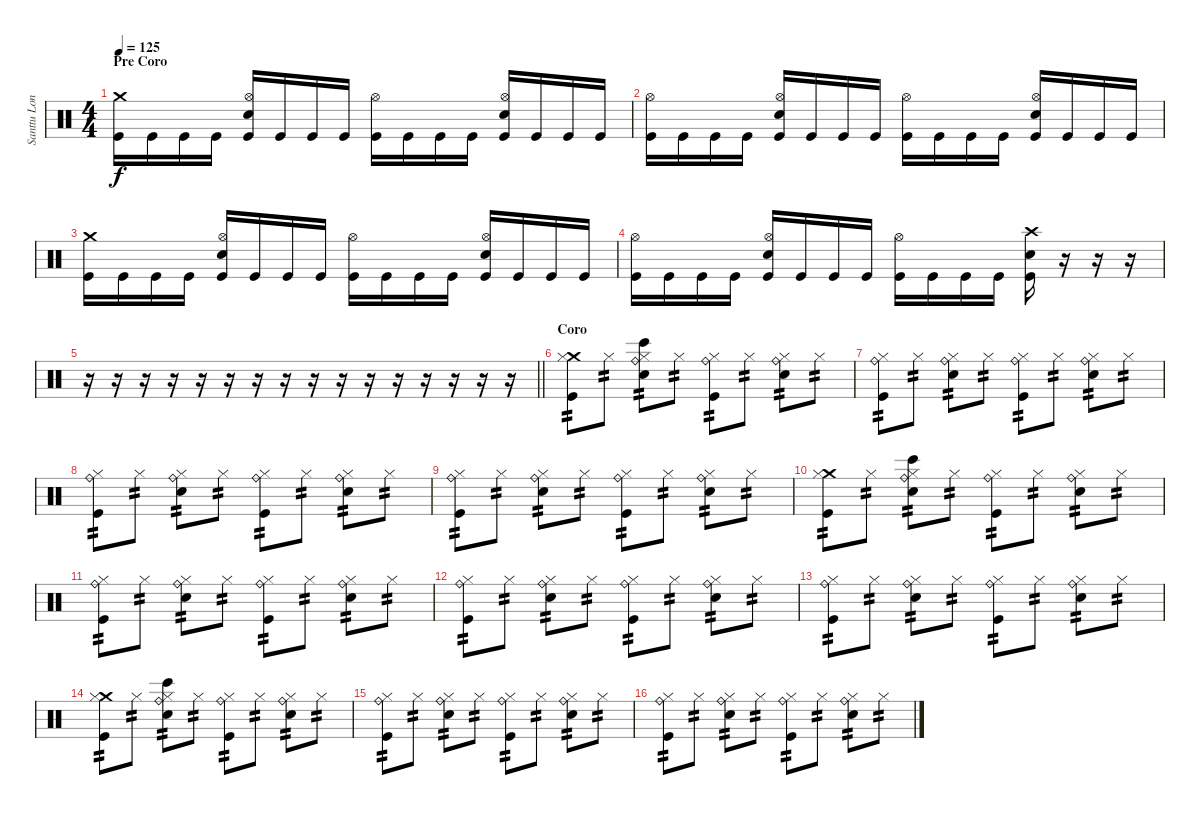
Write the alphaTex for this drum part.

\track ("Santtu Lonka" "Santtu Lon") {instrument percussion}
\staff {score}
\articulation defaults
\ts (4 4)
\section ("" "Pre Coro")
\tempo 125
\clef neutral
\ks c
("Crash medium (hit)" "Kick (hit)").16{dy f} "Kick (hit)".16 "Kick (hit)".16 "Kick (hit)".16 ("Hi-Hat (open)" "Electric Snare (hit)" "Kick (hit)").16 "Kick (hit)".16 "Kick (hit)".16 "Kick (hit)".16 ("Hi-Hat (open)" "Kick (hit)").16 "Kick (hit)".16 "Kick (hit)".16 "Kick (hit)".16 ("Hi-Hat (open)" "Electric Snare (hit)" "Kick (hit)").16 "Kick (hit)".16 "Kick (hit)".16 "Kick (hit)".16 |
("Hi-Hat (open)" "Kick (hit)").16 "Kick (hit)".16 "Kick (hit)".16 "Kick (hit)".16 ("Hi-Hat (open)" "Electric Snare (hit)" "Kick (hit)").16 "Kick (hit)".16 "Kick (hit)".16 "Kick (hit)".16 ("Hi-Hat (open)" "Kick (hit)").16 "Kick (hit)".16 "Kick (hit)".16 "Kick (hit)".16 ("Hi-Hat (open)" "Electric Snare (hit)" "Kick (hit)").16 "Kick (hit)".16 "Kick (hit)".16 "Kick (hit)".16 |
("Crash medium (hit)" "Kick (hit)").16 "Kick (hit)".16 "Kick (hit)".16 "Kick (hit)".16 ("Hi-Hat (open)" "Electric Snare (hit)" "Kick (hit)").16 "Kick (hit)".16 "Kick (hit)".16 "Kick (hit)".16 ("Hi-Hat (open)" "Kick (hit)").16 "Kick (hit)".16 "Kick (hit)".16 "Kick (hit)".16 ("Hi-Hat (open)" "Electric Snare (hit)" "Kick (hit)").16 "Kick (hit)".16 "Kick (hit)".16 "Kick (hit)".16 |
("Hi-Hat (open)" "Kick (hit)").16 "Kick (hit)".16 "Kick (hit)".16 "Kick (hit)".16 ("Hi-Hat (open)" "Electric Snare (hit)" "Kick (hit)").16 "Kick (hit)".16 "Kick (hit)".16 "Kick (hit)".16 ("Hi-Hat (open)" "Kick (hit)").16 "Kick (hit)".16 "Kick (hit)".16 "Kick (hit)".16 ("Crash high (hit)" "Electric Snare (hit)" "Kick (hit)").16 r.16 r.16 r.16 |
\barLineRight lightlight
r.16 r.16 r.16 r.16 r.16 r.16 r.16 r.16 r.16 r.16 r.16 r.16 r.16 r.16 r.16 r.16 |
\section ("" "Coro")
("Crash medium (hit)" "Hi-Hat (closed)" "Kick (hit)").8{tp 2} "Hi-Hat (closed)".8{tp 2} ("Ride (bell)" "Hi-Hat (closed)" "Electric Snare (hit)" "Bongo High (hit)").8{tp 2} "Hi-Hat (closed)".8{tp 2} ("Ride (bell)" "Hi-Hat (closed)" "Kick (hit)").8{tp 2} "Hi-Hat (closed)".8{tp 2} ("Ride (bell)" "Hi-Hat (closed)" "Electric Snare (hit)").8{tp 2} "Hi-Hat (closed)".8{tp 2} |
("Ride (bell)" "Hi-Hat (closed)" "Kick (hit)").8{tp 2} "Hi-Hat (closed)".8{tp 2} ("Ride (bell)" "Hi-Hat (closed)" "Electric Snare (hit)").8{tp 2} "Hi-Hat (closed)".8{tp 2} ("Ride (bell)" "Hi-Hat (closed)" "Kick (hit)").8{tp 2} "Hi-Hat (closed)".8{tp 2} ("Ride (bell)" "Hi-Hat (closed)" "Electric Snare (hit)").8{tp 2} "Hi-Hat (closed)".8{tp 2} |
("Ride (bell)" "Hi-Hat (closed)" "Kick (hit)").8{tp 2} "Hi-Hat (closed)".8{tp 2} ("Ride (bell)" "Hi-Hat (closed)" "Electric Snare (hit)").8{tp 2} "Hi-Hat (closed)".8{tp 2} ("Ride (bell)" "Hi-Hat (closed)" "Kick (hit)").8{tp 2} "Hi-Hat (closed)".8{tp 2} ("Ride (bell)" "Hi-Hat (closed)" "Electric Snare (hit)").8{tp 2} "Hi-Hat (closed)".8{tp 2} |
("Ride (bell)" "Hi-Hat (closed)" "Kick (hit)").8{tp 2} "Hi-Hat (closed)".8{tp 2} ("Ride (bell)" "Hi-Hat (closed)" "Electric Snare (hit)").8{tp 2} "Hi-Hat (closed)".8{tp 2} ("Ride (bell)" "Hi-Hat (closed)" "Kick (hit)").8{tp 2} "Hi-Hat (closed)".8{tp 2} ("Ride (bell)" "Hi-Hat (closed)" "Electric Snare (hit)").8{tp 2} "Hi-Hat (closed)".8{tp 2} |
("Crash medium (hit)" "Hi-Hat (closed)" "Kick (hit)").8{tp 2} "Hi-Hat (closed)".8{tp 2} ("Ride (bell)" "Hi-Hat (closed)" "Electric Snare (hit)" "Bongo High (hit)").8{tp 2} "Hi-Hat (closed)".8{tp 2} ("Ride (bell)" "Hi-Hat (closed)" "Kick (hit)").8{tp 2} "Hi-Hat (closed)".8{tp 2} ("Ride (bell)" "Hi-Hat (closed)" "Electric Snare (hit)").8{tp 2} "Hi-Hat (closed)".8{tp 2} |
("Ride (bell)" "Hi-Hat (closed)" "Kick (hit)").8{tp 2} "Hi-Hat (closed)".8{tp 2} ("Ride (bell)" "Hi-Hat (closed)" "Electric Snare (hit)").8{tp 2} "Hi-Hat (closed)".8{tp 2} ("Ride (bell)" "Hi-Hat (closed)" "Kick (hit)").8{tp 2} "Hi-Hat (closed)".8{tp 2} ("Ride (bell)" "Hi-Hat (closed)" "Electric Snare (hit)").8{tp 2} "Hi-Hat (closed)".8{tp 2} |
("Ride (bell)" "Hi-Hat (closed)" "Kick (hit)").8{tp 2} "Hi-Hat (closed)".8{tp 2} ("Ride (bell)" "Hi-Hat (closed)" "Electric Snare (hit)").8{tp 2} "Hi-Hat (closed)".8{tp 2} ("Ride (bell)" "Hi-Hat (closed)" "Kick (hit)").8{tp 2} "Hi-Hat (closed)".8{tp 2} ("Ride (bell)" "Hi-Hat (closed)" "Electric Snare (hit)").8{tp 2} "Hi-Hat (closed)".8{tp 2} |
("Ride (bell)" "Hi-Hat (closed)" "Kick (hit)").8{tp 2} "Hi-Hat (closed)".8{tp 2} ("Ride (bell)" "Hi-Hat (closed)" "Electric Snare (hit)").8{tp 2} "Hi-Hat (closed)".8{tp 2} ("Ride (bell)" "Hi-Hat (closed)" "Kick (hit)").8{tp 2} "Hi-Hat (closed)".8{tp 2} ("Ride (bell)" "Hi-Hat (closed)" "Electric Snare (hit)").8{tp 2} "Hi-Hat (closed)".8{tp 2} |
("Crash medium (hit)" "Hi-Hat (closed)" "Kick (hit)").8{tp 2} "Hi-Hat (closed)".8{tp 2} ("Ride (bell)" "Hi-Hat (closed)" "Electric Snare (hit)" "Bongo High (hit)").8{tp 2} "Hi-Hat (closed)".8{tp 2} ("Ride (bell)" "Hi-Hat (closed)" "Kick (hit)").8{tp 2} "Hi-Hat (closed)".8{tp 2} ("Ride (bell)" "Hi-Hat (closed)" "Electric Snare (hit)").8{tp 2} "Hi-Hat (closed)".8{tp 2} |
("Ride (bell)" "Hi-Hat (closed)" "Kick (hit)").8{tp 2} "Hi-Hat (closed)".8{tp 2} ("Ride (bell)" "Hi-Hat (closed)" "Electric Snare (hit)").8{tp 2} "Hi-Hat (closed)".8{tp 2} ("Ride (bell)" "Hi-Hat (closed)" "Kick (hit)").8{tp 2} "Hi-Hat (closed)".8{tp 2} ("Ride (bell)" "Hi-Hat (closed)" "Electric Snare (hit)").8{tp 2} "Hi-Hat (closed)".8{tp 2} |
("Ride (bell)" "Hi-Hat (closed)" "Kick (hit)").8{tp 2} "Hi-Hat (closed)".8{tp 2} ("Ride (bell)" "Hi-Hat (closed)" "Electric Snare (hit)").8{tp 2} "Hi-Hat (closed)".8{tp 2} ("Ride (bell)" "Hi-Hat (closed)" "Kick (hit)").8{tp 2} "Hi-Hat (closed)".8{tp 2} ("Ride (bell)" "Hi-Hat (closed)" "Electric Snare (hit)").8{tp 2} "Hi-Hat (closed)".8{tp 2}
